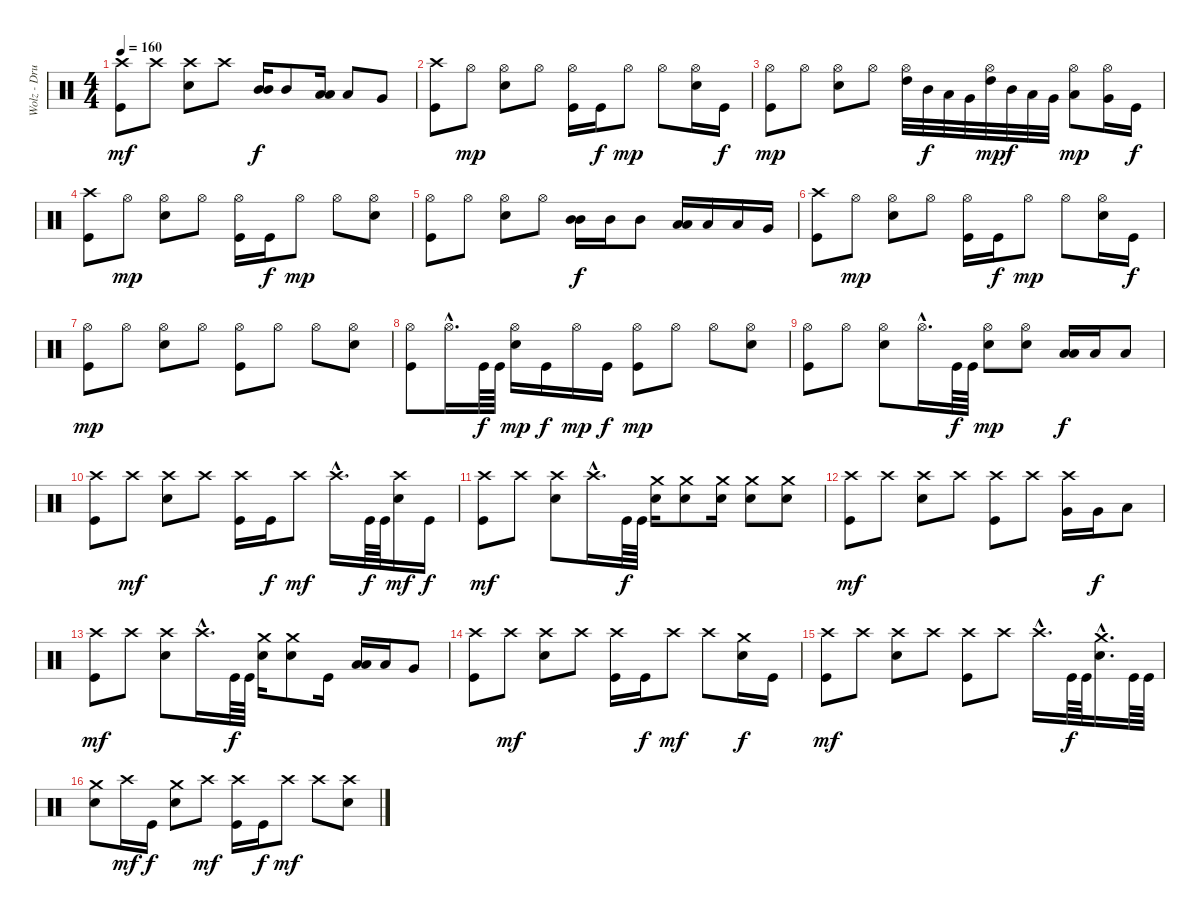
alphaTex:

\track ("Wolz - Drums" "Wolz - Dru") {instrument percussion}
\staff {score}
\articulation defaults
\ts (4 4)
\tempo 160
\clef neutral
\ks c
("Crash high (hit)" "Kick (hit)").8{dy mf} "Crash high (hit)".8 ("Crash high (hit)" "Electric Snare (hit)").8 "Crash high (hit)".8 ("Mid Tom (hit)" "Mid Tom (hit)").16{bu 60 dy f} "Mid Tom (hit)".8 ("Low Tom (hit)" "Low Tom (hit)").16{bu 60} "Low Tom (hit)".8 "Very Low Tom (hit)".8 |
("Crash high (hit)" "Kick (hit)").8 "Hi-Hat (open)".8{dy mp} ("Hi-Hat (open)" "Electric Snare (hit)").8 "Hi-Hat (open)".8 ("Hi-Hat (open)" "Kick (hit)").16 "Kick (hit)".16{dy f} "Hi-Hat (open)".8{dy mp} "Hi-Hat (open)".8 ("Hi-Hat (open)" "Electric Snare (hit)").16 "Kick (hit)".16{dy f} |
("Hi-Hat (open)" "Kick (hit)").8{dy mp} "Hi-Hat (open)".8 ("Hi-Hat (open)" "Electric Snare (hit)").8 "Hi-Hat (open)".8 ("Hi-Hat (open)" "High Tom (hit)").32 "Mid Tom (hit)".32{dy f} "Low Tom (hit)".32 "Very Low Tom (hit)".32 ("Hi-Hat (open)" "High Tom (hit)").32{dy mp} "Mid Tom (hit)".32{dy f} "Low Tom (hit)".32 "Very Low Tom (hit)".32 ("Hi-Hat (open)" "Low Floor Tom (hit)").8{dy mp} ("Hi-Hat (open)" "Very Low Tom (hit)").16 "Kick (hit)".16{dy f} |
("Crash high (hit)" "Kick (hit)").8 "Hi-Hat (open)".8{dy mp} ("Hi-Hat (open)" "Electric Snare (hit)").8 "Hi-Hat (open)".8 ("Hi-Hat (open)" "Kick (hit)").16 "Kick (hit)".16{dy f} "Hi-Hat (open)".8{dy mp} "Hi-Hat (open)".8 ("Hi-Hat (open)" "Electric Snare (hit)").8 |
("Hi-Hat (open)" "Kick (hit)").8 "Hi-Hat (open)".8 ("Hi-Hat (open)" "Electric Snare (hit)").8 "Hi-Hat (open)".8 ("Mid Tom (hit)" "Mid Tom (hit)").16{bu 60 dy f} "Mid Tom (hit)".16 "Mid Tom (hit)".8 ("Low Tom (hit)" "Low Tom (hit)").16{bu 60} "Low Tom (hit)".16 "Low Tom (hit)".16 "Very Low Tom (hit)".16 |
("Crash high (hit)" "Kick (hit)").8 "Hi-Hat (open)".8{dy mp} ("Hi-Hat (open)" "Electric Snare (hit)").8 "Hi-Hat (open)".8 ("Hi-Hat (open)" "Kick (hit)").16 "Kick (hit)".16{dy f} "Hi-Hat (open)".8{dy mp} "Hi-Hat (open)".8 ("Hi-Hat (open)" "Electric Snare (hit)").16 "Kick (hit)".16{dy f} |
("Hi-Hat (open)" "Kick (hit)").8{dy mp} "Hi-Hat (open)".8 ("Hi-Hat (open)" "Electric Snare (hit)").8 "Hi-Hat (open)".8 ("Hi-Hat (open)" "Kick (hit)").8 "Hi-Hat (open)".8 "Hi-Hat (open)".8 ("Hi-Hat (open)" "Electric Snare (hit)").8 |
("Hi-Hat (open)" "Kick (hit)").8 "Hi-Hat (open)"{hac}.16{d} "Kick (hit)".64{dy f} "Kick (hit)".64 ("Hi-Hat (open)" "Electric Snare (hit)").16{dy mp} "Kick (hit)".16{dy f} "Hi-Hat (open)".16{dy mp} "Kick (hit)".16{dy f} ("Hi-Hat (open)" "Kick (hit)").8{dy mp} "Hi-Hat (open)".8 "Hi-Hat (open)".8 ("Hi-Hat (open)" "Electric Snare (hit)").8 |
("Hi-Hat (open)" "Kick (hit)").8 "Hi-Hat (open)".8 ("Hi-Hat (open)" "Electric Snare (hit)").8 "Hi-Hat (open)"{hac}.16{d} "Kick (hit)".64{dy f} "Kick (hit)".64 ("Hi-Hat (open)" "Electric Snare (hit)").8{dy mp} ("Hi-Hat (open)" "Electric Snare (hit)").8 ("Low Tom (hit)" "Low Tom (hit)").16{bu 60 dy f} "Low Tom (hit)".16 "Low Tom (hit)".8 |
("Crash high (hit)" "Kick (hit)").8 "Crash high (hit)".8{dy mf} ("Crash high (hit)" "Electric Snare (hit)").8 "Crash high (hit)".8 ("Crash high (hit)" "Kick (hit)").16 "Kick (hit)".16{dy f} "Crash high (hit)".8{dy mf} "Crash high (hit)"{hac}.16{d} "Kick (hit)".64{dy f} "Kick (hit)".64 ("Crash high (hit)" "Electric Snare (hit)").16{dy mf} "Kick (hit)".16{dy f} |
("Crash high (hit)" "Kick (hit)").8{dy mf} "Crash high (hit)".8 ("Crash high (hit)" "Electric Snare (hit)").8 "Crash high (hit)"{hac}.16{d} "Kick (hit)".64{dy f} "Kick (hit)".64 ("Crash medium (hit)" "Electric Snare (hit)").16 ("Crash medium (hit)" "Electric Snare (hit)").8 ("Crash medium (hit)" "Electric Snare (hit)").16 ("Crash medium (hit)" "Electric Snare (hit)").8 ("Crash medium (hit)" "Electric Snare (hit)").8 |
("Crash high (hit)" "Kick (hit)").8{dy mf} "Crash high (hit)".8 ("Crash high (hit)" "Electric Snare (hit)").8 "Crash high (hit)".8 ("Crash high (hit)" "Kick (hit)").8 "Crash high (hit)".8 ("Crash high (hit)" "Very Low Tom (hit)").16 "Very Low Tom (hit)".16{dy f} "Low Floor Tom (hit)".8 |
("Crash high (hit)" "Kick (hit)").8{dy mf} "Crash high (hit)".8 ("Crash high (hit)" "Electric Snare (hit)").8 "Crash high (hit)"{hac}.16{d} "Kick (hit)".64{dy f} "Kick (hit)".64 ("Crash medium (hit)" "Electric Snare (hit)").16 ("Crash medium (hit)" "Electric Snare (hit)").8 "Kick (hit)".16 ("Low Tom (hit)" "Low Tom (hit)").16{bu 60} "Low Tom (hit)".16 "Very Low Tom (hit)".8 |
("Crash high (hit)" "Kick (hit)").8 "Crash high (hit)".8{dy mf} ("Crash high (hit)" "Electric Snare (hit)").8 "Crash high (hit)".8 ("Crash high (hit)" "Kick (hit)").16 "Kick (hit)".16{dy f} "Crash high (hit)".8{dy mf} "Crash high (hit)".8 ("Crash medium (hit)" "Electric Snare (hit)").16{dy f} "Kick (hit)".16 |
("Crash high (hit)" "Kick (hit)").8{dy mf} "Crash high (hit)".8 ("Crash high (hit)" "Electric Snare (hit)").8 "Crash high (hit)".8 ("Crash high (hit)" "Kick (hit)").8 "Crash high (hit)".8 "Crash high (hit)"{hac}.16{d} "Kick (hit)".64{dy f} "Kick (hit)".64 ("Crash medium (hit)"{hac} "Electric Snare (hit)"{hac}).16{d} "Kick (hit)".64 "Kick (hit)".64 |
("Crash medium (hit)" "Electric Snare (hit)").8 "Crash high (hit)".16{dy mf} "Kick (hit)".16{dy f} ("Crash medium (hit)" "Electric Snare (hit)").8 "Crash high (hit)".8{dy mf} ("Crash high (hit)" "Kick (hit)").16 "Kick (hit)".16{dy f} "Crash high (hit)".8{dy mf} "Crash high (hit)".8 ("Crash high (hit)" "Electric Snare (hit)").8
